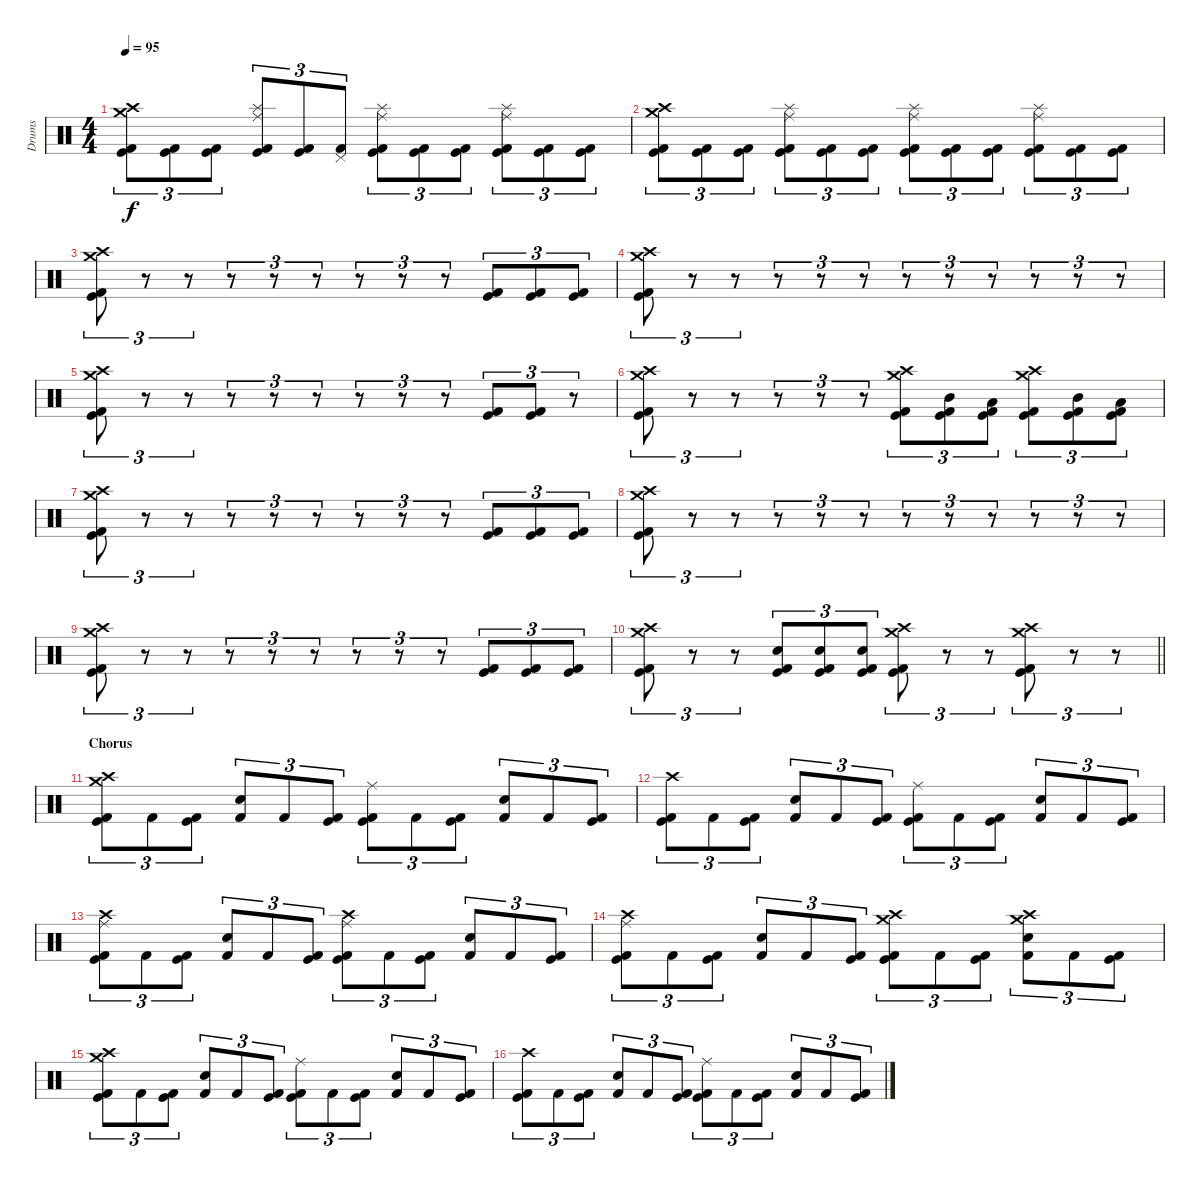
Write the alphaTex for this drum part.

\track ("Drums" "Drums") {instrument percussion}
\staff {score}
\articulation defaults
\ts (4 4)
\tempo 95
\clef neutral
\ks c
("Crash medium (hit)" "Kick (hit)" "Kick (hit) 2" "Crash high (hit)").8{tu (3 2) dy f} ("Kick (hit)" "Kick (hit) 2").8{tu (3 2)} ("Kick (hit)" "Kick (hit) 2").8{tu (3 2)} ("Splash (hit)" "Ride (middle)" "Kick (hit)" "Kick (hit) 2").8{tu (3 2)} ("Kick (hit)" "Kick (hit) 2").8{tu (3 2)} ("Pedal Hi-Hat (hit)" "Kick (hit) 2").8{tu (3 2)} ("Splash (hit)" "Ride (middle)" "Kick (hit)" "Kick (hit) 2").8{tu (3 2)} ("Kick (hit)" "Kick (hit) 2").8{tu (3 2)} ("Kick (hit)" "Kick (hit) 2").8{tu (3 2)} ("Splash (hit)" "Ride (middle)" "Kick (hit)" "Kick (hit) 2").8{tu (3 2)} ("Kick (hit)" "Kick (hit) 2").8{tu (3 2)} ("Kick (hit)" "Kick (hit) 2").8{tu (3 2)} |
("Crash medium (hit)" "Kick (hit)" "Kick (hit) 2" "Crash high (hit)").8{tu (3 2)} ("Kick (hit)" "Kick (hit) 2").8{tu (3 2)} ("Kick (hit)" "Kick (hit) 2").8{tu (3 2)} ("Splash (hit)" "Ride (middle)" "Kick (hit)" "Kick (hit) 2").8{tu (3 2)} ("Kick (hit)" "Kick (hit) 2").8{tu (3 2)} ("Kick (hit)" "Kick (hit) 2").8{tu (3 2)} ("Splash (hit)" "Ride (middle)" "Kick (hit)" "Kick (hit) 2").8{tu (3 2)} ("Kick (hit)" "Kick (hit) 2").8{tu (3 2)} ("Kick (hit)" "Kick (hit) 2").8{tu (3 2)} ("Splash (hit)" "Ride (middle)" "Kick (hit)" "Kick (hit) 2").8{tu (3 2)} ("Kick (hit)" "Kick (hit) 2").8{tu (3 2)} ("Kick (hit)" "Kick (hit) 2").8{tu (3 2)} |
("Crash medium (hit)" "Kick (hit)" "Kick (hit) 2" "Crash high (hit)").8{tu (3 2)} r.8{tu (3 2)} r.8{tu (3 2)} r.8{tu (3 2)} r.8{tu (3 2)} r.8{tu (3 2)} r.8{tu (3 2)} r.8{tu (3 2)} r.8{tu (3 2)} ("Kick (hit)" "Kick (hit) 2").8{tu (3 2)} ("Kick (hit)" "Kick (hit) 2").8{tu (3 2)} ("Kick (hit)" "Kick (hit) 2").8{tu (3 2)} |
("Crash medium (hit)" "Kick (hit)" "Kick (hit) 2" "Crash high (hit)").8{tu (3 2)} r.8{tu (3 2)} r.8{tu (3 2)} r.8{tu (3 2)} r.8{tu (3 2)} r.8{tu (3 2)} r.8{tu (3 2)} r.8{tu (3 2)} r.8{tu (3 2)} r.8{tu (3 2)} r.8{tu (3 2)} r.8{tu (3 2)} |
("Crash medium (hit)" "Kick (hit)" "Kick (hit) 2" "Crash high (hit)").8{tu (3 2)} r.8{tu (3 2)} r.8{tu (3 2)} r.8{tu (3 2)} r.8{tu (3 2)} r.8{tu (3 2)} r.8{tu (3 2)} r.8{tu (3 2)} r.8{tu (3 2)} ("Kick (hit)" "Kick (hit) 2").8{tu (3 2)} ("Kick (hit)" "Kick (hit) 2").8{tu (3 2)} r.8{tu (3 2)} |
("Crash medium (hit)" "Kick (hit)" "Kick (hit) 2" "Crash high (hit)").8{tu (3 2)} r.8{tu (3 2)} r.8{tu (3 2)} r.8{tu (3 2)} r.8{tu (3 2)} r.8{tu (3 2)} ("Crash medium (hit)" "Kick (hit)" "Kick (hit) 2" "Crash high (hit)").8{tu (3 2)} ("Mid Tom (hit)" "Kick (hit)" "Kick (hit) 2").8{tu (3 2)} ("Low Tom (hit)" "Kick (hit)" "Kick (hit) 2").8{tu (3 2)} ("Crash medium (hit)" "Kick (hit)" "Kick (hit) 2" "Crash high (hit)").8{tu (3 2)} ("Mid Tom (hit)" "Kick (hit)" "Kick (hit) 2").8{tu (3 2)} ("Low Tom (hit)" "Kick (hit)" "Kick (hit) 2").8{tu (3 2)} |
("Crash medium (hit)" "Kick (hit)" "Kick (hit) 2" "Crash high (hit)").8{tu (3 2)} r.8{tu (3 2)} r.8{tu (3 2)} r.8{tu (3 2)} r.8{tu (3 2)} r.8{tu (3 2)} r.8{tu (3 2)} r.8{tu (3 2)} r.8{tu (3 2)} ("Kick (hit)" "Kick (hit) 2").8{tu (3 2)} ("Kick (hit)" "Kick (hit) 2").8{tu (3 2)} ("Kick (hit)" "Kick (hit) 2").8{tu (3 2)} |
("Crash medium (hit)" "Kick (hit)" "Kick (hit) 2" "Crash high (hit)").8{tu (3 2)} r.8{tu (3 2)} r.8{tu (3 2)} r.8{tu (3 2)} r.8{tu (3 2)} r.8{tu (3 2)} r.8{tu (3 2)} r.8{tu (3 2)} r.8{tu (3 2)} r.8{tu (3 2)} r.8{tu (3 2)} r.8{tu (3 2)} |
("Crash medium (hit)" "Kick (hit)" "Kick (hit) 2" "Crash high (hit)").8{tu (3 2)} r.8{tu (3 2)} r.8{tu (3 2)} r.8{tu (3 2)} r.8{tu (3 2)} r.8{tu (3 2)} r.8{tu (3 2)} r.8{tu (3 2)} r.8{tu (3 2)} ("Kick (hit)" "Kick (hit) 2").8{tu (3 2)} ("Kick (hit)" "Kick (hit) 2").8{tu (3 2)} ("Kick (hit)" "Kick (hit) 2").8{tu (3 2)} |
\barLineRight lightlight
("Crash medium (hit)" "Kick (hit)" "Kick (hit) 2" "Crash high (hit)").8{tu (3 2)} r.8{tu (3 2)} r.8{tu (3 2)} ("Snare (hit) 2" "Kick (hit)" "Kick (hit) 2").8{tu (3 2)} ("Snare (hit) 2" "Kick (hit)" "Kick (hit) 2").8{tu (3 2)} ("Snare (hit) 2" "Kick (hit)" "Kick (hit) 2").8{tu (3 2)} ("Crash medium (hit)" "Kick (hit)" "Kick (hit) 2" "Crash high (hit)").8{tu (3 2)} r.8{tu (3 2)} r.8{tu (3 2)} ("Crash medium (hit)" "Kick (hit)" "Kick (hit) 2" "Crash high (hit)").8{tu (3 2)} r.8{tu (3 2)} r.8{tu (3 2)} |
\section ("" "Chorus")
("Crash medium (hit)" "Kick (hit)" "Kick (hit) 2" "Crash high (hit)").8{tu (3 2)} "Kick (hit) 2".8{tu (3 2)} ("Kick (hit)" "Kick (hit) 2").8{tu (3 2)} ("Snare (hit) 2" "Kick (hit) 2").8{tu (3 2)} "Kick (hit) 2".8{tu (3 2)} ("Kick (hit)" "Kick (hit) 2").8{tu (3 2)} ("Ride (middle)" "Kick (hit)" "Kick (hit) 2").8{tu (3 2)} "Kick (hit) 2".8{tu (3 2)} ("Kick (hit)" "Kick (hit) 2").8{tu (3 2)} ("Snare (hit) 2" "Kick (hit) 2").8{tu (3 2)} "Kick (hit) 2".8{tu (3 2)} ("Kick (hit)" "Kick (hit) 2").8{tu (3 2)} |
("Kick (hit)" "Kick (hit) 2" "Crash high (hit)").8{tu (3 2)} "Kick (hit) 2".8{tu (3 2)} ("Kick (hit)" "Kick (hit) 2").8{tu (3 2)} ("Snare (hit) 2" "Kick (hit) 2").8{tu (3 2)} "Kick (hit) 2".8{tu (3 2)} ("Kick (hit)" "Kick (hit) 2").8{tu (3 2)} ("Ride (middle)" "Kick (hit)" "Kick (hit) 2").8{tu (3 2)} "Kick (hit) 2".8{tu (3 2)} ("Kick (hit)" "Kick (hit) 2").8{tu (3 2)} ("Snare (hit) 2" "Kick (hit) 2").8{tu (3 2)} "Kick (hit) 2".8{tu (3 2)} ("Kick (hit)" "Kick (hit) 2").8{tu (3 2)} |
("Ride (middle)" "Kick (hit)" "Kick (hit) 2" "Crash high (hit)").8{tu (3 2)} "Kick (hit) 2".8{tu (3 2)} ("Kick (hit)" "Kick (hit) 2").8{tu (3 2)} ("Snare (hit) 2" "Kick (hit) 2").8{tu (3 2)} "Kick (hit) 2".8{tu (3 2)} ("Kick (hit)" "Kick (hit) 2").8{tu (3 2)} ("Ride (middle)" "Kick (hit)" "Kick (hit) 2" "Crash high (hit)").8{tu (3 2)} "Kick (hit) 2".8{tu (3 2)} ("Kick (hit)" "Kick (hit) 2").8{tu (3 2)} ("Snare (hit) 2" "Kick (hit) 2").8{tu (3 2)} "Kick (hit) 2".8{tu (3 2)} ("Kick (hit)" "Kick (hit) 2").8{tu (3 2)} |
("Ride (middle)" "Kick (hit)" "Kick (hit) 2" "Crash high (hit)").8{tu (3 2)} "Kick (hit) 2".8{tu (3 2)} ("Kick (hit)" "Kick (hit) 2").8{tu (3 2)} ("Snare (hit) 2" "Kick (hit) 2").8{tu (3 2)} "Kick (hit) 2".8{tu (3 2)} ("Kick (hit)" "Kick (hit) 2").8{tu (3 2)} ("Crash medium (hit)" "Kick (hit)" "Kick (hit) 2" "Crash high (hit)").8{tu (3 2)} "Kick (hit) 2".8{tu (3 2)} ("Kick (hit)" "Kick (hit) 2").8{tu (3 2)} ("Crash medium (hit)" "Snare (hit) 2" "Kick (hit) 2" "Crash high (hit)").8{tu (3 2)} "Kick (hit) 2".8{tu (3 2)} ("Kick (hit)" "Kick (hit) 2").8{tu (3 2)} |
("Crash medium (hit)" "Kick (hit)" "Kick (hit) 2" "Crash high (hit)").8{tu (3 2)} "Kick (hit) 2".8{tu (3 2)} ("Kick (hit)" "Kick (hit) 2").8{tu (3 2)} ("Snare (hit) 2" "Kick (hit) 2").8{tu (3 2)} "Kick (hit) 2".8{tu (3 2)} ("Kick (hit)" "Kick (hit) 2").8{tu (3 2)} ("Ride (middle)" "Kick (hit)" "Kick (hit) 2").8{tu (3 2)} "Kick (hit) 2".8{tu (3 2)} ("Kick (hit)" "Kick (hit) 2").8{tu (3 2)} ("Snare (hit) 2" "Kick (hit) 2").8{tu (3 2)} "Kick (hit) 2".8{tu (3 2)} ("Kick (hit)" "Kick (hit) 2").8{tu (3 2)} |
("Kick (hit)" "Kick (hit) 2" "Crash high (hit)").8{tu (3 2)} "Kick (hit) 2".8{tu (3 2)} ("Kick (hit)" "Kick (hit) 2").8{tu (3 2)} ("Snare (hit) 2" "Kick (hit) 2").8{tu (3 2)} "Kick (hit) 2".8{tu (3 2)} ("Kick (hit)" "Kick (hit) 2").8{tu (3 2)} ("Ride (middle)" "Kick (hit)" "Kick (hit) 2").8{tu (3 2)} "Kick (hit) 2".8{tu (3 2)} ("Kick (hit)" "Kick (hit) 2").8{tu (3 2)} ("Snare (hit) 2" "Kick (hit) 2").8{tu (3 2)} "Kick (hit) 2".8{tu (3 2)} ("Kick (hit)" "Kick (hit) 2").8{tu (3 2)}
